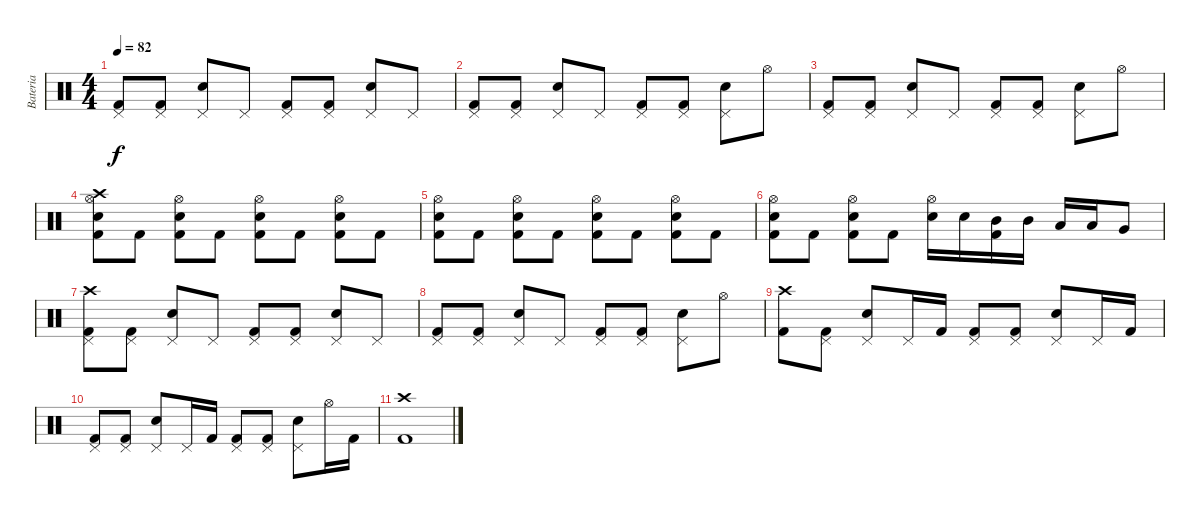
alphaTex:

\track ("Bateria" "Bateria") {instrument percussion}
\staff {score}
\articulation defaults
\ts (4 4)
\tempo 82
\clef neutral
\ks c
("Pedal Hi-Hat (hit)" "Kick (hit) 2").8{dy f} ("Pedal Hi-Hat (hit)" "Kick (hit) 2").8 ("Pedal Hi-Hat (hit)" "Snare (hit) 2").8 "Pedal Hi-Hat (hit)".8 ("Pedal Hi-Hat (hit)" "Kick (hit) 2").8 ("Pedal Hi-Hat (hit)" "Kick (hit) 2").8 ("Pedal Hi-Hat (hit)" "Snare (hit) 2").8 "Pedal Hi-Hat (hit)".8 |
("Pedal Hi-Hat (hit)" "Kick (hit) 2").8 ("Pedal Hi-Hat (hit)" "Kick (hit) 2").8 ("Pedal Hi-Hat (hit)" "Snare (hit) 2").8 "Pedal Hi-Hat (hit)".8 ("Pedal Hi-Hat (hit)" "Kick (hit) 2").8 ("Pedal Hi-Hat (hit)" "Kick (hit) 2").8 ("Pedal Hi-Hat (hit)" "Snare (hit) 2").8 "Hi-Hat (open)".8 |
("Pedal Hi-Hat (hit)" "Kick (hit) 2").8 ("Pedal Hi-Hat (hit)" "Kick (hit) 2").8 ("Pedal Hi-Hat (hit)" "Snare (hit) 2").8 "Pedal Hi-Hat (hit)".8 ("Pedal Hi-Hat (hit)" "Kick (hit) 2").8 ("Pedal Hi-Hat (hit)" "Kick (hit) 2").8 ("Pedal Hi-Hat (hit)" "Snare (hit) 2").8 "Hi-Hat (open)".8 |
("Crash high (hit)" "Hi-Hat (open)" "Snare (hit) 2" "Kick (hit) 2").8 "Kick (hit) 2".8 ("Hi-Hat (open)" "Snare (hit) 2" "Kick (hit) 2").8 "Kick (hit) 2".8 ("Hi-Hat (open)" "Snare (hit) 2" "Kick (hit) 2").8 "Kick (hit) 2".8 ("Hi-Hat (open)" "Snare (hit) 2" "Kick (hit) 2").8 "Kick (hit) 2".8 |
("Hi-Hat (open)" "Snare (hit) 2" "Kick (hit) 2").8 "Kick (hit) 2".8 ("Hi-Hat (open)" "Snare (hit) 2" "Kick (hit) 2").8 "Kick (hit) 2".8 ("Hi-Hat (open)" "Snare (hit) 2" "Kick (hit) 2").8 "Kick (hit) 2".8 ("Hi-Hat (open)" "Snare (hit) 2" "Kick (hit) 2").8 "Kick (hit) 2".8 |
("Hi-Hat (open)" "Snare (hit) 2" "Kick (hit) 2").8 "Kick (hit) 2".8 ("Hi-Hat (open)" "Snare (hit) 2" "Kick (hit) 2").8 "Kick (hit) 2".8 ("Hi-Hat (open)" "Snare (hit) 2").16 "Snare (hit) 2".16 ("Mid Tom (hit)" "Kick (hit) 2").16 "Mid Tom (hit)".16 "Low Tom (hit)".16 "Low Tom (hit)".16 "Very Low Tom (hit)".8 |
("Crash high (hit)" "Pedal Hi-Hat (hit)" "Kick (hit) 2").8 ("Pedal Hi-Hat (hit)" "Kick (hit) 2").8 ("Pedal Hi-Hat (hit)" "Snare (hit) 2").8 "Pedal Hi-Hat (hit)".8 ("Pedal Hi-Hat (hit)" "Kick (hit) 2").8 ("Pedal Hi-Hat (hit)" "Kick (hit) 2").8 ("Pedal Hi-Hat (hit)" "Snare (hit) 2").8 "Pedal Hi-Hat (hit)".8 |
("Pedal Hi-Hat (hit)" "Kick (hit) 2").8 ("Pedal Hi-Hat (hit)" "Kick (hit) 2").8 ("Pedal Hi-Hat (hit)" "Snare (hit) 2").8 "Pedal Hi-Hat (hit)".8 ("Pedal Hi-Hat (hit)" "Kick (hit) 2").8 ("Pedal Hi-Hat (hit)" "Kick (hit) 2").8 ("Pedal Hi-Hat (hit)" "Snare (hit) 2").8 "Hi-Hat (open)".8 |
("Crash high (hit)" "Kick (hit) 2").8 ("Pedal Hi-Hat (hit)" "Kick (hit) 2").8 ("Pedal Hi-Hat (hit)" "Snare (hit) 2").8 "Pedal Hi-Hat (hit)".16 "Kick (hit) 2".16 ("Pedal Hi-Hat (hit)" "Kick (hit) 2").8 ("Pedal Hi-Hat (hit)" "Kick (hit) 2").8 ("Pedal Hi-Hat (hit)" "Snare (hit) 2").8 "Pedal Hi-Hat (hit)".16 "Kick (hit) 2".16 |
("Pedal Hi-Hat (hit)" "Kick (hit) 2").8 ("Pedal Hi-Hat (hit)" "Kick (hit) 2").8 ("Pedal Hi-Hat (hit)" "Snare (hit) 2").8 "Pedal Hi-Hat (hit)".16 "Kick (hit) 2".16 ("Pedal Hi-Hat (hit)" "Kick (hit) 2").8 ("Pedal Hi-Hat (hit)" "Kick (hit) 2").8 ("Pedal Hi-Hat (hit)" "Snare (hit) 2").8 "Hi-Hat (open)".16 "Kick (hit) 2".16 |
("Crash high (hit)" "Kick (hit) 2").1
